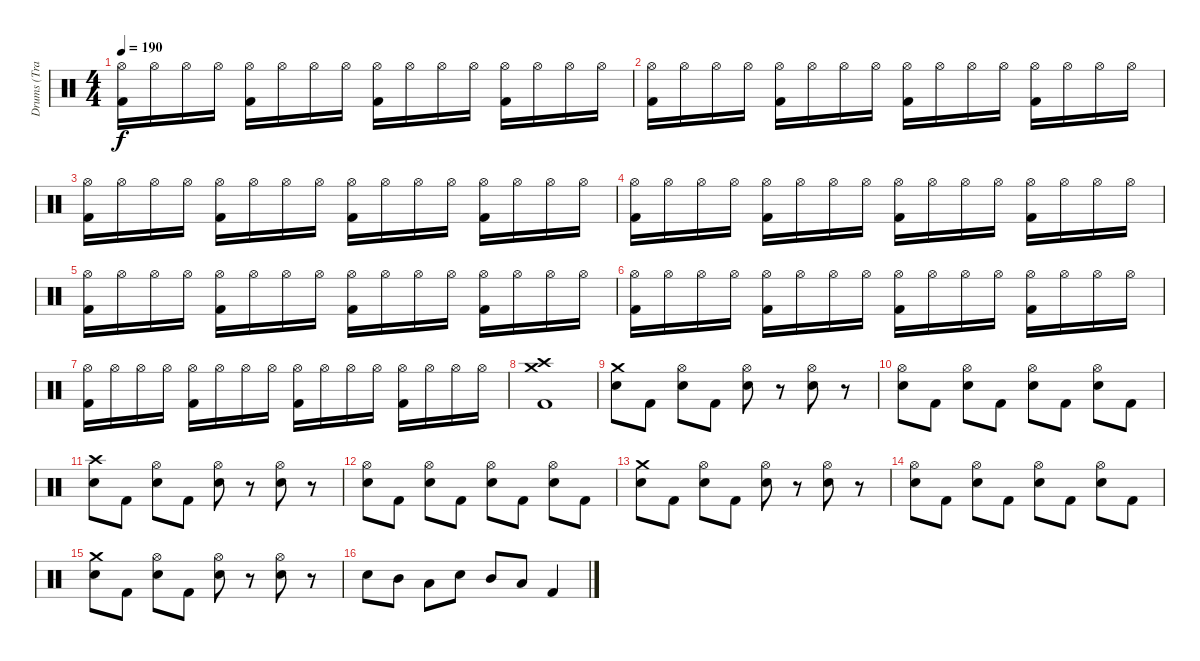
\track ("Drums (Travis)" "Drums (Tra") {instrument percussion}
\staff {score}
\articulation defaults
\ts (4 4)
\tempo 190
\clef neutral
\ks c
("Hi-Hat (open)" "Kick (hit) 2").16{dy f} "Hi-Hat (open)".16 "Hi-Hat (open)".16 "Hi-Hat (open)".16 ("Hi-Hat (open)" "Kick (hit) 2").16 "Hi-Hat (open)".16 "Hi-Hat (open)".16 "Hi-Hat (open)".16 ("Hi-Hat (open)" "Kick (hit) 2").16 "Hi-Hat (open)".16 "Hi-Hat (open)".16 "Hi-Hat (open)".16 ("Hi-Hat (open)" "Kick (hit) 2").16 "Hi-Hat (open)".16 "Hi-Hat (open)".16 "Hi-Hat (open)".16 |
("Hi-Hat (open)" "Kick (hit) 2").16 "Hi-Hat (open)".16 "Hi-Hat (open)".16 "Hi-Hat (open)".16 ("Hi-Hat (open)" "Kick (hit) 2").16 "Hi-Hat (open)".16 "Hi-Hat (open)".16 "Hi-Hat (open)".16 ("Hi-Hat (open)" "Kick (hit) 2").16 "Hi-Hat (open)".16 "Hi-Hat (open)".16 "Hi-Hat (open)".16 ("Hi-Hat (open)" "Kick (hit) 2").16 "Hi-Hat (open)".16 "Hi-Hat (open)".16 "Hi-Hat (open)".16 |
("Hi-Hat (open)" "Kick (hit) 2").16 "Hi-Hat (open)".16 "Hi-Hat (open)".16 "Hi-Hat (open)".16 ("Hi-Hat (open)" "Kick (hit) 2").16 "Hi-Hat (open)".16 "Hi-Hat (open)".16 "Hi-Hat (open)".16 ("Hi-Hat (open)" "Kick (hit) 2").16 "Hi-Hat (open)".16 "Hi-Hat (open)".16 "Hi-Hat (open)".16 ("Hi-Hat (open)" "Kick (hit) 2").16 "Hi-Hat (open)".16 "Hi-Hat (open)".16 "Hi-Hat (open)".16 |
("Hi-Hat (open)" "Kick (hit) 2").16 "Hi-Hat (open)".16 "Hi-Hat (open)".16 "Hi-Hat (open)".16 ("Hi-Hat (open)" "Kick (hit) 2").16 "Hi-Hat (open)".16 "Hi-Hat (open)".16 "Hi-Hat (open)".16 ("Hi-Hat (open)" "Kick (hit) 2").16 "Hi-Hat (open)".16 "Hi-Hat (open)".16 "Hi-Hat (open)".16 ("Hi-Hat (open)" "Kick (hit) 2").16 "Hi-Hat (open)".16 "Hi-Hat (open)".16 "Hi-Hat (open)".16 |
("Hi-Hat (open)" "Kick (hit) 2").16 "Hi-Hat (open)".16 "Hi-Hat (open)".16 "Hi-Hat (open)".16 ("Hi-Hat (open)" "Kick (hit) 2").16 "Hi-Hat (open)".16 "Hi-Hat (open)".16 "Hi-Hat (open)".16 ("Hi-Hat (open)" "Kick (hit) 2").16 "Hi-Hat (open)".16 "Hi-Hat (open)".16 "Hi-Hat (open)".16 ("Hi-Hat (open)" "Kick (hit) 2").16 "Hi-Hat (open)".16 "Hi-Hat (open)".16 "Hi-Hat (open)".16 |
("Hi-Hat (open)" "Kick (hit) 2").16 "Hi-Hat (open)".16 "Hi-Hat (open)".16 "Hi-Hat (open)".16 ("Hi-Hat (open)" "Kick (hit) 2").16 "Hi-Hat (open)".16 "Hi-Hat (open)".16 "Hi-Hat (open)".16 ("Hi-Hat (open)" "Kick (hit) 2").16 "Hi-Hat (open)".16 "Hi-Hat (open)".16 "Hi-Hat (open)".16 ("Hi-Hat (open)" "Kick (hit) 2").16 "Hi-Hat (open)".16 "Hi-Hat (open)".16 "Hi-Hat (open)".16 |
("Hi-Hat (open)" "Kick (hit) 2").16 "Hi-Hat (open)".16 "Hi-Hat (open)".16 "Hi-Hat (open)".16 ("Hi-Hat (open)" "Kick (hit) 2").16 "Hi-Hat (open)".16 "Hi-Hat (open)".16 "Hi-Hat (open)".16 ("Hi-Hat (open)" "Kick (hit) 2").16 "Hi-Hat (open)".16 "Hi-Hat (open)".16 "Hi-Hat (open)".16 ("Hi-Hat (open)" "Kick (hit) 2").16 "Hi-Hat (open)".16 "Hi-Hat (open)".16 "Hi-Hat (open)".16 |
("Crash high (hit)" "Crash medium (hit)" "Kick (hit) 2").1 |
("Crash medium (hit)" "Electric Snare (hit)").8 "Kick (hit) 2".8 ("Hi-Hat (open)" "Electric Snare (hit)").8 "Kick (hit) 2".8 ("Hi-Hat (open)" "Electric Snare (hit)").8 r.8 ("Hi-Hat (open)" "Electric Snare (hit)").8 r.8 |
("Hi-Hat (open)" "Electric Snare (hit)").8 "Kick (hit) 2".8 ("Hi-Hat (open)" "Electric Snare (hit)").8 "Kick (hit) 2".8 ("Hi-Hat (open)" "Electric Snare (hit)").8 "Kick (hit) 2".8 ("Hi-Hat (open)" "Electric Snare (hit)").8 "Kick (hit) 2".8 |
("Crash high (hit)" "Electric Snare (hit)").8 "Kick (hit) 2".8 ("Hi-Hat (open)" "Electric Snare (hit)").8 "Kick (hit) 2".8 ("Hi-Hat (open)" "Electric Snare (hit)").8 r.8 ("Hi-Hat (open)" "Electric Snare (hit)").8 r.8 |
("Hi-Hat (open)" "Electric Snare (hit)").8 "Kick (hit) 2".8 ("Hi-Hat (open)" "Electric Snare (hit)").8 "Kick (hit) 2".8 ("Hi-Hat (open)" "Electric Snare (hit)").8 "Kick (hit) 2".8 ("Hi-Hat (open)" "Electric Snare (hit)").8 "Kick (hit) 2".8 |
("Crash medium (hit)" "Electric Snare (hit)").8 "Kick (hit) 2".8 ("Hi-Hat (open)" "Electric Snare (hit)").8 "Kick (hit) 2".8 ("Hi-Hat (open)" "Electric Snare (hit)").8 r.8 ("Hi-Hat (open)" "Electric Snare (hit)").8 r.8 |
("Hi-Hat (open)" "Electric Snare (hit)").8 "Kick (hit) 2".8 ("Hi-Hat (open)" "Electric Snare (hit)").8 "Kick (hit) 2".8 ("Hi-Hat (open)" "Electric Snare (hit)").8 "Kick (hit) 2".8 ("Hi-Hat (open)" "Electric Snare (hit)").8 "Kick (hit) 2".8 |
("Crash medium (hit)" "Electric Snare (hit)").8 "Kick (hit) 2".8 ("Hi-Hat (open)" "Electric Snare (hit)").8 "Kick (hit) 2".8 ("Hi-Hat (open)" "Electric Snare (hit)").8 r.8 ("Hi-Hat (open)" "Electric Snare (hit)").8 r.8 |
"Electric Snare (hit)".8 "Mid Tom (hit)".8 "Low Tom (hit)".8 "Electric Snare (hit)".8 "Mid Tom (hit)".8 "Low Tom (hit)".8 "Kick (hit) 2".4
